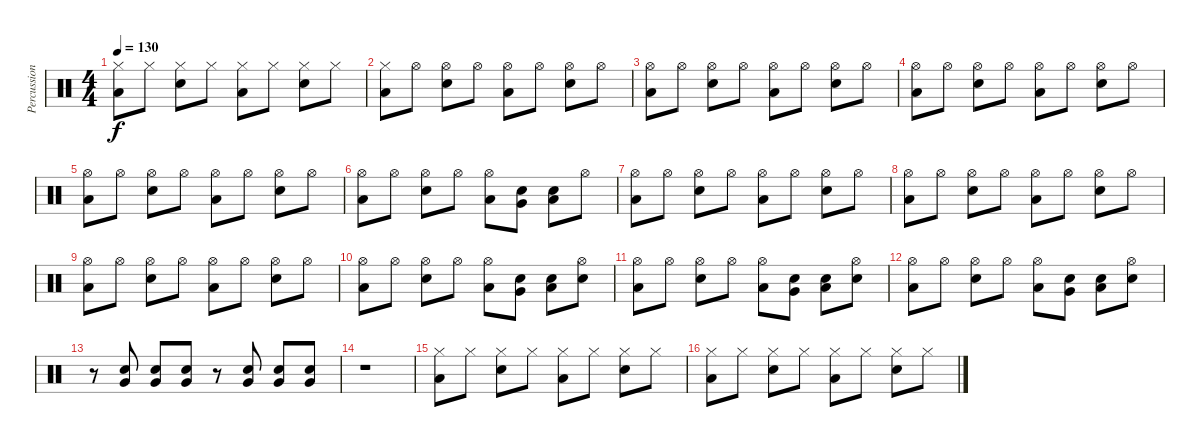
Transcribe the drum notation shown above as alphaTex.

\track ("Percussion" "Percussion") {instrument percussion}
\staff {score}
\articulation defaults
\ts (4 4)
\tempo 130
\clef neutral
\ks c
("Hi-Hat (closed)" "Low Floor Tom (hit)").8{dy f} "Hi-Hat (closed)".8 ("Hi-Hat (closed)" "Snare (hit) 2").8 "Hi-Hat (closed)".8 ("Hi-Hat (closed)" "Low Floor Tom (hit)").8 "Hi-Hat (closed)".8 ("Hi-Hat (closed)" "Snare (hit) 2").8 "Hi-Hat (closed)".8 |
("Hi-Hat (closed)" "Low Floor Tom (hit)").8 "Hi-Hat (open)".8 ("Hi-Hat (open)" "Snare (hit) 2").8 "Hi-Hat (open)".8 ("Hi-Hat (open)" "Low Floor Tom (hit)").8 "Hi-Hat (open)".8 ("Hi-Hat (open)" "Snare (hit) 2").8 "Hi-Hat (open)".8 |
("Hi-Hat (open)" "Low Floor Tom (hit)").8 "Hi-Hat (open)".8 ("Hi-Hat (open)" "Snare (hit) 2").8 "Hi-Hat (open)".8 ("Hi-Hat (open)" "Low Floor Tom (hit)").8 "Hi-Hat (open)".8 ("Hi-Hat (open)" "Snare (hit) 2").8 "Hi-Hat (open)".8 |
("Hi-Hat (open)" "Low Floor Tom (hit)").8 "Hi-Hat (open)".8 ("Hi-Hat (open)" "Snare (hit) 2").8 "Hi-Hat (open)".8 ("Hi-Hat (open)" "Low Floor Tom (hit)").8 "Hi-Hat (open)".8 ("Hi-Hat (open)" "Snare (hit) 2").8 "Hi-Hat (open)".8 |
("Hi-Hat (open)" "Low Floor Tom (hit)").8 "Hi-Hat (open)".8 ("Hi-Hat (open)" "Snare (hit) 2").8 "Hi-Hat (open)".8 ("Hi-Hat (open)" "Low Floor Tom (hit)").8 "Hi-Hat (open)".8 ("Hi-Hat (open)" "Snare (hit) 2").8 "Hi-Hat (open)".8 |
("Hi-Hat (open)" "Low Floor Tom (hit)").8 "Hi-Hat (open)".8 ("Hi-Hat (open)" "Snare (hit) 2").8 "Hi-Hat (open)".8 ("Hi-Hat (open)" "Low Floor Tom (hit)").8 ("Snare (hit) 2" "Very Low Tom (hit)").8 ("Snare (hit) 2" "Low Floor Tom (hit)").8 "Hi-Hat (open)".8 |
("Hi-Hat (open)" "Low Floor Tom (hit)").8 "Hi-Hat (open)".8 ("Hi-Hat (open)" "Snare (hit) 2").8 "Hi-Hat (open)".8 ("Hi-Hat (open)" "Low Floor Tom (hit)").8 "Hi-Hat (open)".8 ("Hi-Hat (open)" "Snare (hit) 2").8 "Hi-Hat (open)".8 |
("Hi-Hat (open)" "Low Floor Tom (hit)").8 "Hi-Hat (open)".8 ("Hi-Hat (open)" "Snare (hit) 2").8 "Hi-Hat (open)".8 ("Hi-Hat (open)" "Low Floor Tom (hit)").8 "Hi-Hat (open)".8 ("Hi-Hat (open)" "Snare (hit) 2").8 "Hi-Hat (open)".8 |
("Hi-Hat (open)" "Low Floor Tom (hit)").8 "Hi-Hat (open)".8 ("Hi-Hat (open)" "Snare (hit) 2").8 "Hi-Hat (open)".8 ("Hi-Hat (open)" "Low Floor Tom (hit)").8 "Hi-Hat (open)".8 ("Hi-Hat (open)" "Snare (hit) 2").8 "Hi-Hat (open)".8 |
("Hi-Hat (open)" "Low Floor Tom (hit)").8 "Hi-Hat (open)".8 ("Hi-Hat (open)" "Snare (hit) 2").8 "Hi-Hat (open)".8 ("Hi-Hat (open)" "Low Floor Tom (hit)").8 ("Snare (hit) 2" "Very Low Tom (hit)").8 ("Snare (hit) 2" "Low Floor Tom (hit)").8 ("Hi-Hat (open)" "Snare (hit) 2").8 |
("Hi-Hat (open)" "Low Floor Tom (hit)").8 "Hi-Hat (open)".8 ("Hi-Hat (open)" "Snare (hit) 2").8 "Hi-Hat (open)".8 ("Hi-Hat (open)" "Low Floor Tom (hit)").8 ("Snare (hit) 2" "Very Low Tom (hit)").8 ("Snare (hit) 2" "Low Floor Tom (hit)").8 ("Hi-Hat (open)" "Snare (hit) 2").8 |
("Hi-Hat (open)" "Low Floor Tom (hit)").8 "Hi-Hat (open)".8 ("Hi-Hat (open)" "Snare (hit) 2").8 "Hi-Hat (open)".8 ("Hi-Hat (open)" "Low Floor Tom (hit)").8 ("Snare (hit) 2" "Very Low Tom (hit)").8 ("Snare (hit) 2" "Low Floor Tom (hit)").8 ("Hi-Hat (open)" "Snare (hit) 2").8 |
r.8 ("Snare (hit) 2" "Very Low Tom (hit)").8 ("Snare (hit) 2" "Very Low Tom (hit)").8 ("Snare (hit) 2" "Very Low Tom (hit)").8 r.8 ("Snare (hit) 2" "Very Low Tom (hit)").8 ("Snare (hit) 2" "Very Low Tom (hit)").8 ("Snare (hit) 2" "Very Low Tom (hit)").8 |
r.1 |
("Hi-Hat (closed)" "Low Floor Tom (hit)").8 "Hi-Hat (closed)".8 ("Hi-Hat (closed)" "Snare (hit) 2").8 "Hi-Hat (closed)".8 ("Hi-Hat (closed)" "Low Floor Tom (hit)").8 "Hi-Hat (closed)".8 ("Hi-Hat (closed)" "Snare (hit) 2").8 "Hi-Hat (closed)".8 |
("Hi-Hat (closed)" "Low Floor Tom (hit)").8 "Hi-Hat (closed)".8 ("Hi-Hat (closed)" "Snare (hit) 2").8 "Hi-Hat (closed)".8 ("Hi-Hat (closed)" "Low Floor Tom (hit)").8 "Hi-Hat (closed)".8 ("Hi-Hat (closed)" "Snare (hit) 2").8 "Hi-Hat (closed)".8
